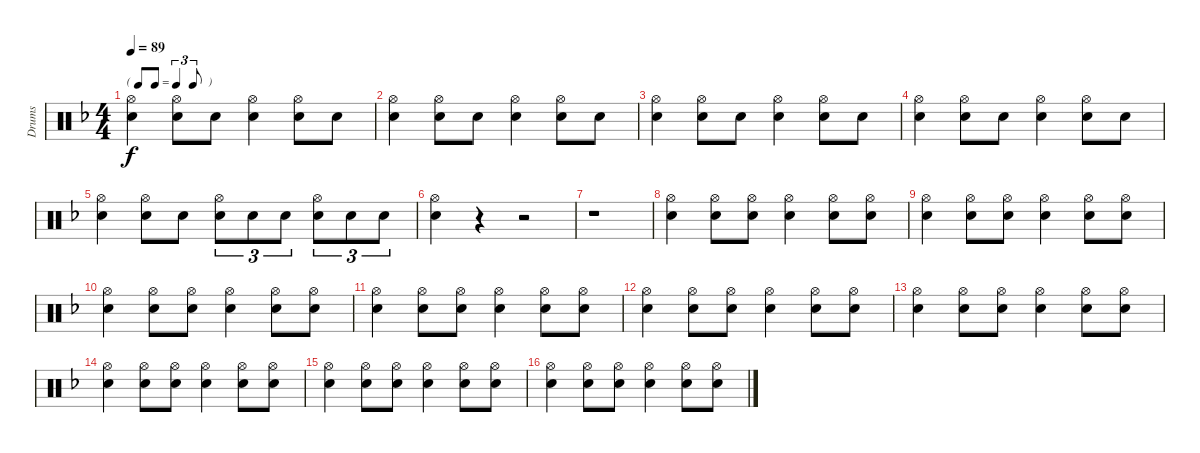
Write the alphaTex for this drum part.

\track ("Drums" "Drums") {instrument percussion}
\staff {score}
\articulation defaults
\ts (4 4)
\tf triplet8th
\tempo 89
\clef neutral
\ks f
("Hi-Hat (open)" "Snare (hit) 2").4{dy f} ("Hi-Hat (open)" "Snare (hit) 2").8 "Snare (hit) 2".8 ("Hi-Hat (open)" "Snare (hit) 2").4 ("Hi-Hat (open)" "Snare (hit) 2").8 "Snare (hit) 2".8 |
("Hi-Hat (open)" "Snare (hit) 2").4 ("Hi-Hat (open)" "Snare (hit) 2").8 "Snare (hit) 2".8 ("Hi-Hat (open)" "Snare (hit) 2").4 ("Hi-Hat (open)" "Snare (hit) 2").8 "Snare (hit) 2".8 |
("Hi-Hat (open)" "Snare (hit) 2").4 ("Hi-Hat (open)" "Snare (hit) 2").8 "Snare (hit) 2".8 ("Hi-Hat (open)" "Snare (hit) 2").4 ("Hi-Hat (open)" "Snare (hit) 2").8 "Snare (hit) 2".8 |
("Hi-Hat (open)" "Snare (hit) 2").4 ("Hi-Hat (open)" "Snare (hit) 2").8 "Snare (hit) 2".8 ("Hi-Hat (open)" "Snare (hit) 2").4 ("Hi-Hat (open)" "Snare (hit) 2").8 "Snare (hit) 2".8 |
("Hi-Hat (open)" "Snare (hit) 2").4 ("Hi-Hat (open)" "Snare (hit) 2").8 "Snare (hit) 2".8 ("Hi-Hat (open)" "Snare (hit) 2").8{tu (3 2)} "Snare (hit) 2".8{tu (3 2)} "Snare (hit) 2".8{tu (3 2)} ("Hi-Hat (open)" "Snare (hit) 2").8{tu (3 2)} "Snare (hit) 2".8{tu (3 2)} "Snare (hit) 2".8{tu (3 2)} |
("Hi-Hat (open)" "Snare (hit) 2").4 r.4 r.2 |
r.1 |
("Hi-Hat (open)" "Snare (hit) 2").4 ("Hi-Hat (open)" "Snare (hit) 2").8 ("Hi-Hat (open)" "Snare (hit) 2").8 ("Hi-Hat (open)" "Snare (hit) 2").4 ("Hi-Hat (open)" "Snare (hit) 2").8 ("Hi-Hat (open)" "Snare (hit) 2").8 |
("Hi-Hat (open)" "Snare (hit) 2").4 ("Hi-Hat (open)" "Snare (hit) 2").8 ("Hi-Hat (open)" "Snare (hit) 2").8 ("Hi-Hat (open)" "Snare (hit) 2").4 ("Hi-Hat (open)" "Snare (hit) 2").8 ("Hi-Hat (open)" "Snare (hit) 2").8 |
("Hi-Hat (open)" "Snare (hit) 2").4 ("Hi-Hat (open)" "Snare (hit) 2").8 ("Hi-Hat (open)" "Snare (hit) 2").8 ("Hi-Hat (open)" "Snare (hit) 2").4 ("Hi-Hat (open)" "Snare (hit) 2").8 ("Hi-Hat (open)" "Snare (hit) 2").8 |
("Hi-Hat (open)" "Snare (hit) 2").4 ("Hi-Hat (open)" "Snare (hit) 2").8 ("Hi-Hat (open)" "Snare (hit) 2").8 ("Hi-Hat (open)" "Snare (hit) 2").4 ("Hi-Hat (open)" "Snare (hit) 2").8 ("Hi-Hat (open)" "Snare (hit) 2").8 |
("Hi-Hat (open)" "Snare (hit) 2").4 ("Hi-Hat (open)" "Snare (hit) 2").8 ("Hi-Hat (open)" "Snare (hit) 2").8 ("Hi-Hat (open)" "Snare (hit) 2").4 ("Hi-Hat (open)" "Snare (hit) 2").8 ("Hi-Hat (open)" "Snare (hit) 2").8 |
("Hi-Hat (open)" "Snare (hit) 2").4 ("Hi-Hat (open)" "Snare (hit) 2").8 ("Hi-Hat (open)" "Snare (hit) 2").8 ("Hi-Hat (open)" "Snare (hit) 2").4 ("Hi-Hat (open)" "Snare (hit) 2").8 ("Hi-Hat (open)" "Snare (hit) 2").8 |
("Hi-Hat (open)" "Snare (hit) 2").4 ("Hi-Hat (open)" "Snare (hit) 2").8 ("Hi-Hat (open)" "Snare (hit) 2").8 ("Hi-Hat (open)" "Snare (hit) 2").4 ("Hi-Hat (open)" "Snare (hit) 2").8 ("Hi-Hat (open)" "Snare (hit) 2").8 |
("Hi-Hat (open)" "Snare (hit) 2").4 ("Hi-Hat (open)" "Snare (hit) 2").8 ("Hi-Hat (open)" "Snare (hit) 2").8 ("Hi-Hat (open)" "Snare (hit) 2").4 ("Hi-Hat (open)" "Snare (hit) 2").8 ("Hi-Hat (open)" "Snare (hit) 2").8 |
("Hi-Hat (open)" "Snare (hit) 2").4 ("Hi-Hat (open)" "Snare (hit) 2").8 ("Hi-Hat (open)" "Snare (hit) 2").8 ("Hi-Hat (open)" "Snare (hit) 2").4 ("Hi-Hat (open)" "Snare (hit) 2").8 ("Hi-Hat (open)" "Snare (hit) 2").8
